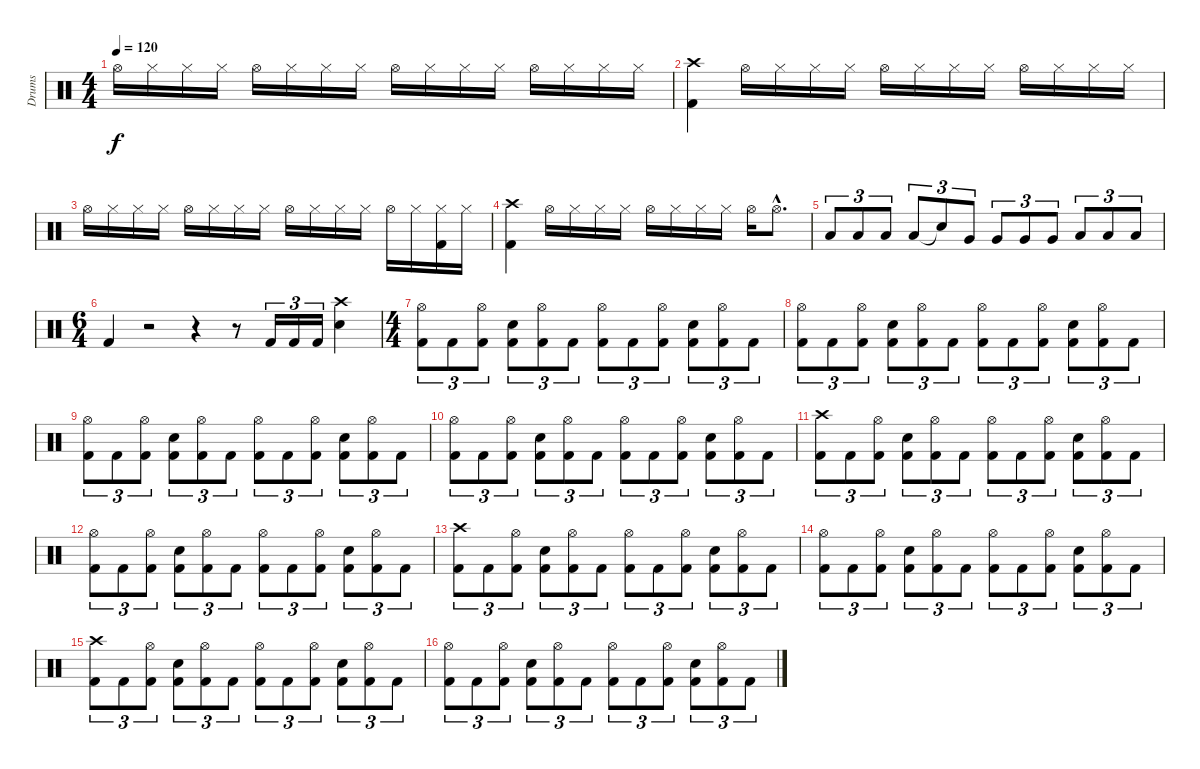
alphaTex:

\track ("Drums" "Drums") {instrument percussion}
\staff {score}
\articulation defaults
\ts (4 4)
\tempo 120
\clef neutral
\ks c "Hi-Hat (open)".16{dy f} "Hi-Hat (closed)".16 "Hi-Hat (closed)".16 "Hi-Hat (closed)".16 "Hi-Hat (open)".16 "Hi-Hat (closed)".16 "Hi-Hat (closed)".16 "Hi-Hat (closed)".16 "Hi-Hat (open)".16 "Hi-Hat (closed)".16 "Hi-Hat (closed)".16 "Hi-Hat (closed)".16 "Hi-Hat (open)".16 "Hi-Hat (closed)".16 "Hi-Hat (closed)".16 "Hi-Hat (closed)".16
|
("Crash high (hit)" "Kick (hit) 2").4 "Hi-Hat (open)".16 "Hi-Hat (closed)".16 "Hi-Hat (closed)".16 "Hi-Hat (closed)".16 "Hi-Hat (open)".16 "Hi-Hat (closed)".16 "Hi-Hat (closed)".16 "Hi-Hat (closed)".16 "Hi-Hat (open)".16 "Hi-Hat (closed)".16 "Hi-Hat (closed)".16 "Hi-Hat (closed)".16 |
"Hi-Hat (open)".16 "Hi-Hat (closed)".16 "Hi-Hat (closed)".16 "Hi-Hat (closed)".16 "Hi-Hat (open)".16 "Hi-Hat (closed)".16 "Hi-Hat (closed)".16 "Hi-Hat (closed)".16 "Hi-Hat (open)".16 "Hi-Hat (closed)".16 "Hi-Hat (closed)".16 "Hi-Hat (closed)".16 "Hi-Hat (open)".16 "Hi-Hat (closed)".16 ("Hi-Hat (closed)" "Kick (hit) 2").16 "Hi-Hat (closed)".16 |
("Crash high (hit)" "Kick (hit) 2").4 "Hi-Hat (open)".16 "Hi-Hat (closed)".16 "Hi-Hat (closed)".16 "Hi-Hat (closed)".16 "Hi-Hat (open)".16 "Hi-Hat (closed)".16 "Hi-Hat (closed)".16 "Hi-Hat (closed)".16 "Hi-Hat (open)".16 "Hi-Hat (open)"{hac}.8{d} |
"Low Tom (hit)".8{tu (3 2)} "Low Tom (hit)".8{tu (3 2)} "Low Tom (hit)".8{tu (3 2)} "Low Tom (hit)".8{tu (3 2)} "Snare (hit)"{t}.8{tu (3 2)} "Very Low Tom (hit)".8{tu (3 2)} "Very Low Tom (hit)".8{tu (3 2)} "Very Low Tom (hit)".8{tu (3 2)} "Very Low Tom (hit)".8{tu (3 2)} "Low Floor Tom (hit)".8{tu (3 2)} "Low Floor Tom (hit)".8{tu (3 2)} "Low Floor Tom (hit)".8{tu (3 2)} |
\ts (6 4)
"Kick (hit) 2".4 r.2 r.4 r.8 "Kick (hit) 2".16{tu (3 2)} "Kick (hit) 2".16{tu (3 2)} "Kick (hit) 2".16{tu (3 2)} ("Crash high (hit)" "Electric Snare (hit)").4 |
\ts (4 4)
("Hi-Hat (open)" "Kick (hit) 2").8{tu (3 2)} "Kick (hit) 2".8{tu (3 2)} ("Hi-Hat (open)" "Kick (hit) 2").8{tu (3 2)} ("Electric Snare (hit)" "Kick (hit) 2").8{tu (3 2)} ("Hi-Hat (open)" "Kick (hit) 2").8{tu (3 2)} "Kick (hit) 2".8{tu (3 2)} ("Hi-Hat (open)" "Kick (hit) 2").8{tu (3 2)} "Kick (hit) 2".8{tu (3 2)} ("Hi-Hat (open)" "Kick (hit) 2").8{tu (3 2)} ("Electric Snare (hit)" "Kick (hit) 2").8{tu (3 2)} ("Hi-Hat (open)" "Kick (hit) 2").8{tu (3 2)} "Kick (hit) 2".8{tu (3 2)} |
("Hi-Hat (open)" "Kick (hit) 2").8{tu (3 2)} "Kick (hit) 2".8{tu (3 2)} ("Hi-Hat (open)" "Kick (hit) 2").8{tu (3 2)} ("Electric Snare (hit)" "Kick (hit) 2").8{tu (3 2)} ("Hi-Hat (open)" "Kick (hit) 2").8{tu (3 2)} "Kick (hit) 2".8{tu (3 2)} ("Hi-Hat (open)" "Kick (hit) 2").8{tu (3 2)} "Kick (hit) 2".8{tu (3 2)} ("Hi-Hat (open)" "Kick (hit) 2").8{tu (3 2)} ("Electric Snare (hit)" "Kick (hit) 2").8{tu (3 2)} ("Hi-Hat (open)" "Kick (hit) 2").8{tu (3 2)} "Kick (hit) 2".8{tu (3 2)} |
("Hi-Hat (open)" "Kick (hit) 2").8{tu (3 2)} "Kick (hit) 2".8{tu (3 2)} ("Hi-Hat (open)" "Kick (hit) 2").8{tu (3 2)} ("Electric Snare (hit)" "Kick (hit) 2").8{tu (3 2)} ("Hi-Hat (open)" "Kick (hit) 2").8{tu (3 2)} "Kick (hit) 2".8{tu (3 2)} ("Hi-Hat (open)" "Kick (hit) 2").8{tu (3 2)} "Kick (hit) 2".8{tu (3 2)} ("Hi-Hat (open)" "Kick (hit) 2").8{tu (3 2)} ("Electric Snare (hit)" "Kick (hit) 2").8{tu (3 2)} ("Hi-Hat (open)" "Kick (hit) 2").8{tu (3 2)} "Kick (hit) 2".8{tu (3 2)} |
("Hi-Hat (open)" "Kick (hit) 2").8{tu (3 2)} "Kick (hit) 2".8{tu (3 2)} ("Hi-Hat (open)" "Kick (hit) 2").8{tu (3 2)} ("Electric Snare (hit)" "Kick (hit) 2").8{tu (3 2)} ("Hi-Hat (open)" "Kick (hit) 2").8{tu (3 2)} "Kick (hit) 2".8{tu (3 2)} ("Hi-Hat (open)" "Kick (hit) 2").8{tu (3 2)} "Kick (hit) 2".8{tu (3 2)} ("Hi-Hat (open)" "Kick (hit) 2").8{tu (3 2)} ("Electric Snare (hit)" "Kick (hit) 2").8{tu (3 2)} ("Hi-Hat (open)" "Kick (hit) 2").8{tu (3 2)} "Kick (hit) 2".8{tu (3 2)} |
("Crash high (hit)" "Kick (hit) 2").8{tu (3 2)} "Kick (hit) 2".8{tu (3 2)} ("Hi-Hat (open)" "Kick (hit) 2").8{tu (3 2)} ("Electric Snare (hit)" "Kick (hit) 2").8{tu (3 2)} ("Hi-Hat (open)" "Kick (hit) 2").8{tu (3 2)} "Kick (hit) 2".8{tu (3 2)} ("Hi-Hat (open)" "Kick (hit) 2").8{tu (3 2)} "Kick (hit) 2".8{tu (3 2)} ("Hi-Hat (open)" "Kick (hit) 2").8{tu (3 2)} ("Electric Snare (hit)" "Kick (hit) 2").8{tu (3 2)} ("Hi-Hat (open)" "Kick (hit) 2").8{tu (3 2)} "Kick (hit) 2".8{tu (3 2)} |
("Hi-Hat (open)" "Kick (hit) 2").8{tu (3 2)} "Kick (hit) 2".8{tu (3 2)} ("Hi-Hat (open)" "Kick (hit) 2").8{tu (3 2)} ("Electric Snare (hit)" "Kick (hit) 2").8{tu (3 2)} ("Hi-Hat (open)" "Kick (hit) 2").8{tu (3 2)} "Kick (hit) 2".8{tu (3 2)} ("Hi-Hat (open)" "Kick (hit) 2").8{tu (3 2)} "Kick (hit) 2".8{tu (3 2)} ("Hi-Hat (open)" "Kick (hit) 2").8{tu (3 2)} ("Electric Snare (hit)" "Kick (hit) 2").8{tu (3 2)} ("Hi-Hat (open)" "Kick (hit) 2").8{tu (3 2)} "Kick (hit) 2".8{tu (3 2)} |
("Crash high (hit)" "Kick (hit) 2").8{tu (3 2)} "Kick (hit) 2".8{tu (3 2)} ("Hi-Hat (open)" "Kick (hit) 2").8{tu (3 2)} ("Electric Snare (hit)" "Kick (hit) 2").8{tu (3 2)} ("Hi-Hat (open)" "Kick (hit) 2").8{tu (3 2)} "Kick (hit) 2".8{tu (3 2)} ("Hi-Hat (open)" "Kick (hit) 2").8{tu (3 2)} "Kick (hit) 2".8{tu (3 2)} ("Hi-Hat (open)" "Kick (hit) 2").8{tu (3 2)} ("Electric Snare (hit)" "Kick (hit) 2").8{tu (3 2)} ("Hi-Hat (open)" "Kick (hit) 2").8{tu (3 2)} "Kick (hit) 2".8{tu (3 2)} |
("Hi-Hat (open)" "Kick (hit) 2").8{tu (3 2)} "Kick (hit) 2".8{tu (3 2)} ("Hi-Hat (open)" "Kick (hit) 2").8{tu (3 2)} ("Electric Snare (hit)" "Kick (hit) 2").8{tu (3 2)} ("Hi-Hat (open)" "Kick (hit) 2").8{tu (3 2)} "Kick (hit) 2".8{tu (3 2)} ("Hi-Hat (open)" "Kick (hit) 2").8{tu (3 2)} "Kick (hit) 2".8{tu (3 2)} ("Hi-Hat (open)" "Kick (hit) 2").8{tu (3 2)} ("Electric Snare (hit)" "Kick (hit) 2").8{tu (3 2)} ("Hi-Hat (open)" "Kick (hit) 2").8{tu (3 2)} "Kick (hit) 2".8{tu (3 2)} |
("Crash high (hit)" "Kick (hit) 2").8{tu (3 2)} "Kick (hit) 2".8{tu (3 2)} ("Hi-Hat (open)" "Kick (hit) 2").8{tu (3 2)} ("Electric Snare (hit)" "Kick (hit) 2").8{tu (3 2)} ("Hi-Hat (open)" "Kick (hit) 2").8{tu (3 2)} "Kick (hit) 2".8{tu (3 2)} ("Hi-Hat (open)" "Kick (hit) 2").8{tu (3 2)} "Kick (hit) 2".8{tu (3 2)} ("Hi-Hat (open)" "Kick (hit) 2").8{tu (3 2)} ("Electric Snare (hit)" "Kick (hit) 2").8{tu (3 2)} ("Hi-Hat (open)" "Kick (hit) 2").8{tu (3 2)} "Kick (hit) 2".8{tu (3 2)} |
("Hi-Hat (open)" "Kick (hit) 2").8{tu (3 2)} "Kick (hit) 2".8{tu (3 2)} ("Hi-Hat (open)" "Kick (hit) 2").8{tu (3 2)} ("Electric Snare (hit)" "Kick (hit) 2").8{tu (3 2)} ("Hi-Hat (open)" "Kick (hit) 2").8{tu (3 2)} "Kick (hit) 2".8{tu (3 2)} ("Hi-Hat (open)" "Kick (hit) 2").8{tu (3 2)} "Kick (hit) 2".8{tu (3 2)} ("Hi-Hat (open)" "Kick (hit) 2").8{tu (3 2)} ("Electric Snare (hit)" "Kick (hit) 2").8{tu (3 2)} ("Hi-Hat (open)" "Kick (hit) 2").8{tu (3 2)} "Kick (hit) 2".8{tu (3 2)}
